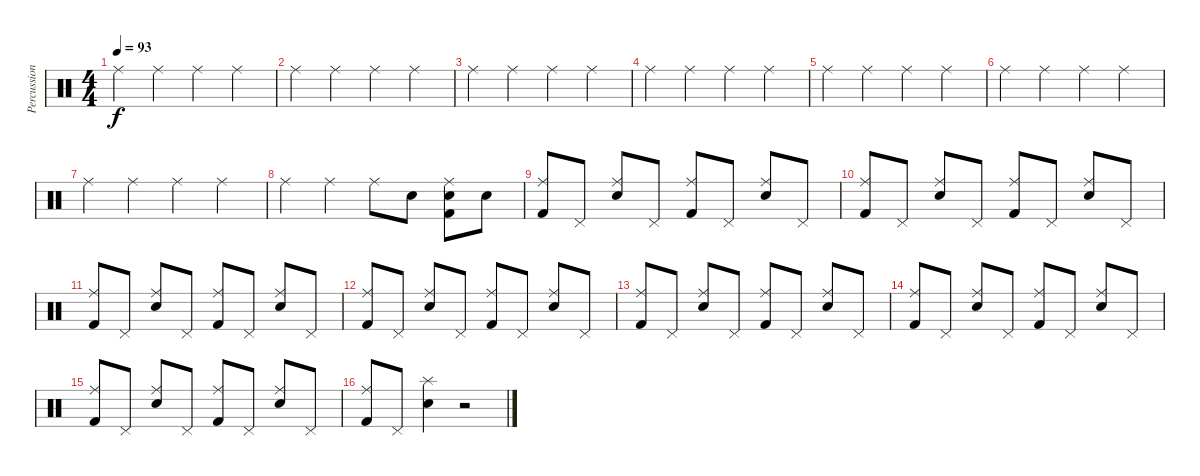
\track ("Percussion" "Percussion") {instrument percussion}
\staff {score}
\articulation defaults
\ts (4 4)
\tempo 93
\clef neutral
\ks c "Ride (middle)".4{dy f} "Ride (middle)".4 "Ride (middle)".4 "Ride (middle)".4
|
"Ride (middle)".4 "Ride (middle)".4 "Ride (middle)".4 "Ride (middle)".4 |
"Ride (middle)".4 "Ride (middle)".4 "Ride (middle)".4 "Ride (middle)".4 |
"Ride (middle)".4 "Ride (middle)".4 "Ride (middle)".4 "Ride (middle)".4 |
"Ride (middle)".4 "Ride (middle)".4 "Ride (middle)".4 "Ride (middle)".4 |
"Ride (middle)".4 "Ride (middle)".4 "Ride (middle)".4 "Ride (middle)".4 |
"Ride (middle)".4 "Ride (middle)".4 "Ride (middle)".4 "Ride (middle)".4 |
"Ride (middle)".4 "Ride (middle)".4 "Ride (middle)".8 "Snare (hit) 2".8 ("Ride (middle)" "Snare (hit) 2" "Kick (hit) 2").8 "Snare (hit) 2".8 |
("Ride (middle)" "Kick (hit) 2").8 "Pedal Hi-Hat (hit)".8 ("Ride (middle)" "Snare (hit) 2").8 "Pedal Hi-Hat (hit)".8 ("Ride (middle)" "Kick (hit) 2").8 "Pedal Hi-Hat (hit)".8 ("Ride (middle)" "Snare (hit) 2").8 "Pedal Hi-Hat (hit)".8 |
("Ride (middle)" "Kick (hit) 2").8 "Pedal Hi-Hat (hit)".8 ("Ride (middle)" "Snare (hit) 2").8 "Pedal Hi-Hat (hit)".8 ("Ride (middle)" "Kick (hit) 2").8 "Pedal Hi-Hat (hit)".8 ("Ride (middle)" "Snare (hit) 2").8 "Pedal Hi-Hat (hit)".8 |
("Ride (middle)" "Kick (hit) 2").8 "Pedal Hi-Hat (hit)".8 ("Ride (middle)" "Snare (hit) 2").8 "Pedal Hi-Hat (hit)".8 ("Ride (middle)" "Kick (hit) 2").8 "Pedal Hi-Hat (hit)".8 ("Ride (middle)" "Snare (hit) 2").8 "Pedal Hi-Hat (hit)".8 |
("Ride (middle)" "Kick (hit) 2").8 "Pedal Hi-Hat (hit)".8 ("Ride (middle)" "Snare (hit) 2").8 "Pedal Hi-Hat (hit)".8 ("Ride (middle)" "Kick (hit) 2").8 "Pedal Hi-Hat (hit)".8 ("Ride (middle)" "Snare (hit) 2").8 "Pedal Hi-Hat (hit)".8 |
("Ride (middle)" "Kick (hit) 2").8 "Pedal Hi-Hat (hit)".8 ("Ride (middle)" "Snare (hit) 2").8 "Pedal Hi-Hat (hit)".8 ("Ride (middle)" "Kick (hit) 2").8 "Pedal Hi-Hat (hit)".8 ("Ride (middle)" "Snare (hit) 2").8 "Pedal Hi-Hat (hit)".8 |
("Ride (middle)" "Kick (hit) 2").8 "Pedal Hi-Hat (hit)".8 ("Ride (middle)" "Snare (hit) 2").8 "Pedal Hi-Hat (hit)".8 ("Ride (middle)" "Kick (hit) 2").8 "Pedal Hi-Hat (hit)".8 ("Ride (middle)" "Snare (hit) 2").8 "Pedal Hi-Hat (hit)".8 |
("Ride (middle)" "Kick (hit) 2").8 "Pedal Hi-Hat (hit)".8 ("Ride (middle)" "Snare (hit) 2").8 "Pedal Hi-Hat (hit)".8 ("Ride (middle)" "Kick (hit) 2").8 "Pedal Hi-Hat (hit)".8 ("Ride (middle)" "Snare (hit) 2").8 "Pedal Hi-Hat (hit)".8 |
("Ride (middle)" "Kick (hit) 2").8 "Pedal Hi-Hat (hit)".8 ("Splash (hit)" "Snare (hit) 2").4 r.2
